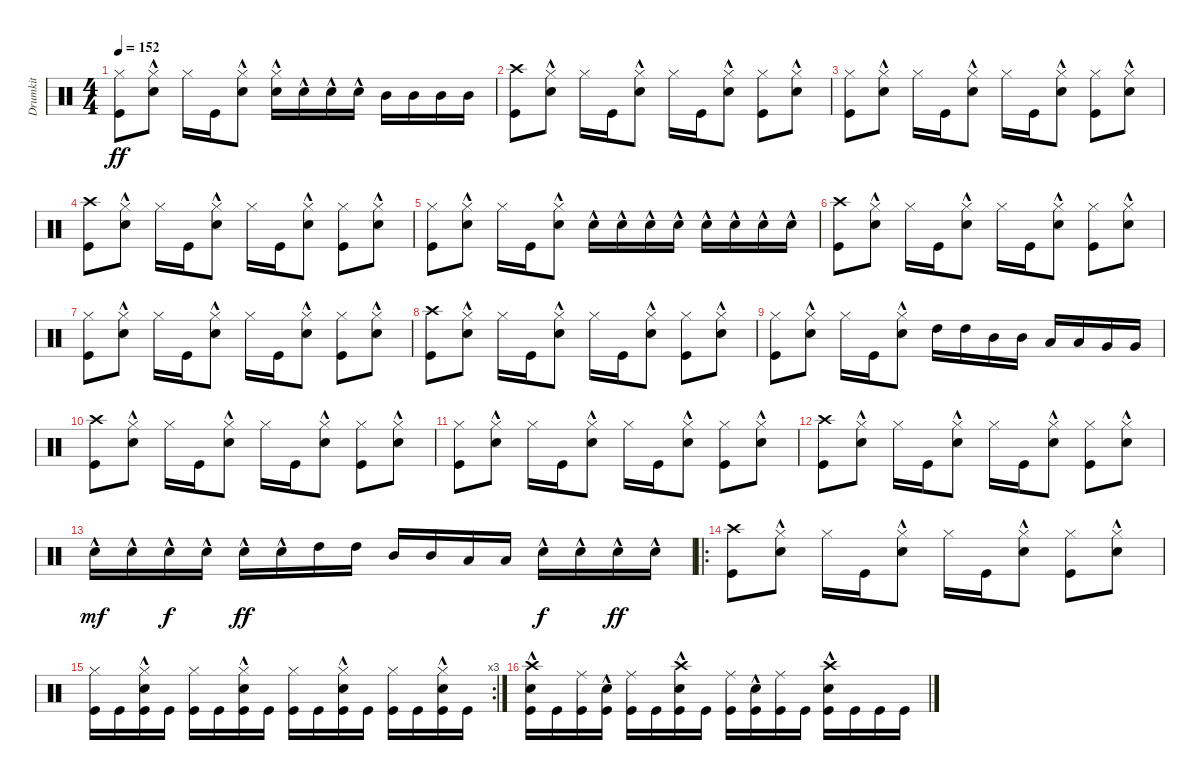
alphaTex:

\track ("Drumkit" "Drumkit") {instrument percussion}
\staff {score}
\articulation defaults
\ts (4 4)
\tempo 152
\clef neutral
\ks c
("Kick (hit)" "Hi-Hat (closed)").8{dy ff} ("Snare (hit) 2"{hac} "Hi-Hat (closed)").8 "Hi-Hat (closed)".16 "Kick (hit)".16 ("Snare (hit) 2"{hac} "Hi-Hat (closed)").8 ("Hi-Hat (closed)" "Snare (hit) 2"{hac}).16 "Snare (hit) 2"{hac}.16 "Snare (hit) 2"{hac}.16 "Snare (hit) 2"{hac}.16 "Mid Tom (hit)".16 "Mid Tom (hit)".16 "Mid Tom (hit)".16 "Mid Tom (hit)".16 |
("Kick (hit)" "Crash high (hit)").8 ("Snare (hit) 2"{hac} "Hi-Hat (closed)").8 "Hi-Hat (closed)".16 "Kick (hit)".16 ("Snare (hit) 2"{hac} "Hi-Hat (closed)").8 "Hi-Hat (closed)".16 "Kick (hit)".16 ("Snare (hit) 2"{hac} "Hi-Hat (closed)").8 ("Kick (hit)" "Hi-Hat (closed)").8 ("Snare (hit) 2"{hac} "Hi-Hat (closed)").8 |
("Kick (hit)" "Hi-Hat (closed)").8 ("Snare (hit) 2"{hac} "Hi-Hat (closed)").8 "Hi-Hat (closed)".16 "Kick (hit)".16 ("Snare (hit) 2"{hac} "Hi-Hat (closed)").8 "Hi-Hat (closed)".16 "Kick (hit)".16 ("Snare (hit) 2"{hac} "Hi-Hat (closed)").8 ("Kick (hit)" "Hi-Hat (closed)").8 ("Snare (hit) 2"{hac} "Hi-Hat (closed)").8 |
("Kick (hit)" "Crash high (hit)").8 ("Snare (hit) 2"{hac} "Hi-Hat (closed)").8 "Hi-Hat (closed)".16 "Kick (hit)".16 ("Snare (hit) 2"{hac} "Hi-Hat (closed)").8 "Hi-Hat (closed)".16 "Kick (hit)".16 ("Snare (hit) 2"{hac} "Hi-Hat (closed)").8 ("Kick (hit)" "Hi-Hat (closed)").8 ("Snare (hit) 2"{hac} "Hi-Hat (closed)").8 |
("Kick (hit)" "Hi-Hat (closed)").8 ("Snare (hit) 2"{hac} "Hi-Hat (closed)").8 "Hi-Hat (closed)".16 "Kick (hit)".16 ("Snare (hit) 2"{hac} "Hi-Hat (closed)").8 "Snare (hit) 2"{hac}.16 "Snare (hit) 2"{hac}.16 "Snare (hit) 2"{hac}.16 "Snare (hit) 2"{hac}.16 "Snare (hit) 2"{hac}.16 "Snare (hit) 2"{hac}.16 "Snare (hit) 2"{hac}.16 "Snare (hit) 2"{hac}.16 |
("Kick (hit)" "Crash high (hit)").8 ("Snare (hit) 2"{hac} "Hi-Hat (closed)").8 "Hi-Hat (closed)".16 "Kick (hit)".16 ("Snare (hit) 2"{hac} "Hi-Hat (closed)").8 "Hi-Hat (closed)".16 "Kick (hit)".16 ("Snare (hit) 2"{hac} "Hi-Hat (closed)").8 ("Kick (hit)" "Hi-Hat (closed)").8 ("Snare (hit) 2"{hac} "Hi-Hat (closed)").8 |
("Kick (hit)" "Hi-Hat (closed)").8 ("Snare (hit) 2"{hac} "Hi-Hat (closed)").8 "Hi-Hat (closed)".16 "Kick (hit)".16 ("Snare (hit) 2"{hac} "Hi-Hat (closed)").8 "Hi-Hat (closed)".16 "Kick (hit)".16 ("Snare (hit) 2"{hac} "Hi-Hat (closed)").8 ("Kick (hit)" "Hi-Hat (closed)").8 ("Snare (hit) 2"{hac} "Hi-Hat (closed)").8 |
("Kick (hit)" "Crash high (hit)").8 ("Snare (hit) 2"{hac} "Hi-Hat (closed)").8 "Hi-Hat (closed)".16 "Kick (hit)".16 ("Snare (hit) 2"{hac} "Hi-Hat (closed)").8 "Hi-Hat (closed)".16 "Kick (hit)".16 ("Snare (hit) 2"{hac} "Hi-Hat (closed)").8 ("Kick (hit)" "Hi-Hat (closed)").8 ("Snare (hit) 2"{hac} "Hi-Hat (closed)").8 |
("Kick (hit)" "Hi-Hat (closed)").8 ("Snare (hit) 2"{hac} "Hi-Hat (closed)").8 "Hi-Hat (closed)".16 "Kick (hit)".16 ("Snare (hit) 2"{hac} "Hi-Hat (closed)").8 "High Tom (hit)".16 "High Tom (hit)".16 "Mid Tom (hit)".16 "Mid Tom (hit)".16 "Low Tom (hit)".16 "Low Tom (hit)".16 "Very Low Tom (hit)".16 "Very Low Tom (hit)".16 |
("Kick (hit)" "Crash high (hit)").8 ("Snare (hit) 2"{hac} "Hi-Hat (closed)").8 "Hi-Hat (closed)".16 "Kick (hit)".16 ("Snare (hit) 2"{hac} "Hi-Hat (closed)").8 "Hi-Hat (closed)".16 "Kick (hit)".16 ("Snare (hit) 2"{hac} "Hi-Hat (closed)").8 ("Kick (hit)" "Hi-Hat (closed)").8 ("Snare (hit) 2"{hac} "Hi-Hat (closed)").8 |
("Kick (hit)" "Hi-Hat (closed)").8 ("Snare (hit) 2"{hac} "Hi-Hat (closed)").8 "Hi-Hat (closed)".16 "Kick (hit)".16 ("Snare (hit) 2"{hac} "Hi-Hat (closed)").8 "Hi-Hat (closed)".16 "Kick (hit)".16 ("Snare (hit) 2"{hac} "Hi-Hat (closed)").8 ("Kick (hit)" "Hi-Hat (closed)").8 ("Snare (hit) 2"{hac} "Hi-Hat (closed)").8 |
("Kick (hit)" "Crash high (hit)").8 ("Snare (hit) 2"{hac} "Hi-Hat (closed)").8 "Hi-Hat (closed)".16 "Kick (hit)".16 ("Snare (hit) 2"{hac} "Hi-Hat (closed)").8 "Hi-Hat (closed)".16 "Kick (hit)".16 ("Snare (hit) 2"{hac} "Hi-Hat (closed)").8 ("Kick (hit)" "Hi-Hat (closed)").8 ("Snare (hit) 2"{hac} "Hi-Hat (closed)").8 |
"Snare (hit) 2"{hac}.16{dy mf} "Snare (hit) 2"{hac}.16 "Snare (hit) 2"{hac}.16{dy f} "Snare (hit) 2"{hac}.16 "Snare (hit) 2"{hac}.16{dy ff} "Snare (hit) 2"{hac}.16 "High Tom (hit)".16 "High Tom (hit)".16 "Mid Tom (hit)".16 "Mid Tom (hit)".16 "Low Tom (hit)".16 "Low Tom (hit)".16 "Snare (hit) 2"{hac}.16{dy f} "Snare (hit) 2"{hac}.16 "Snare (hit) 2"{hac}.16{dy ff} "Snare (hit) 2"{hac}.16 |
\ro
("Kick (hit)" "Crash high (hit)").8 ("Snare (hit) 2"{hac} "Hi-Hat (closed)").8 "Hi-Hat (closed)".16 "Kick (hit)".16 ("Snare (hit) 2"{hac} "Hi-Hat (closed)").8 "Hi-Hat (closed)".16 "Kick (hit)".16 ("Snare (hit) 2"{hac} "Hi-Hat (closed)").8 ("Kick (hit)" "Hi-Hat (closed)").8 ("Snare (hit) 2"{hac} "Hi-Hat (closed)").8 |
\rc 3
("Kick (hit)" "Hi-Hat (closed)").16 "Kick (hit)".16 ("Kick (hit)" "Hi-Hat (closed)" "Snare (hit) 2"{hac}).16 "Kick (hit)".16 ("Kick (hit)" "Hi-Hat (closed)").16 "Kick (hit)".16 ("Kick (hit)" "Hi-Hat (closed)" "Snare (hit) 2"{hac}).16 "Kick (hit)".16 ("Kick (hit)" "Hi-Hat (closed)").16 "Kick (hit)".16 ("Kick (hit)" "Hi-Hat (closed)" "Snare (hit) 2"{hac}).16 "Kick (hit)".16 ("Kick (hit)" "Hi-Hat (closed)").16 "Kick (hit)".16 ("Kick (hit)" "Hi-Hat (closed)" "Snare (hit) 2"{hac}).16 "Kick (hit)".16 |
("Kick (hit)" "Snare (hit) 2"{hac} "Crash high (hit)").16 "Kick (hit)".16 ("Kick (hit)" "Ride (middle)").16 ("Kick (hit)" "Snare (hit) 2"{hac}).16 ("Kick (hit)" "Ride (middle)").16 "Kick (hit)".16 ("Kick (hit)" "Crash high (hit)" "Snare (hit) 2"{hac}).16 "Kick (hit)".16 ("Kick (hit)" "Ride (middle)").16 ("Kick (hit)" "Snare (hit) 2"{hac}).16 ("Kick (hit)" "Ride (middle)").16 "Kick (hit)".16 ("Kick (hit)" "Snare (hit) 2"{hac} "Crash high (hit)").16 "Kick (hit)".16 "Kick (hit)".16 "Kick (hit)".16
